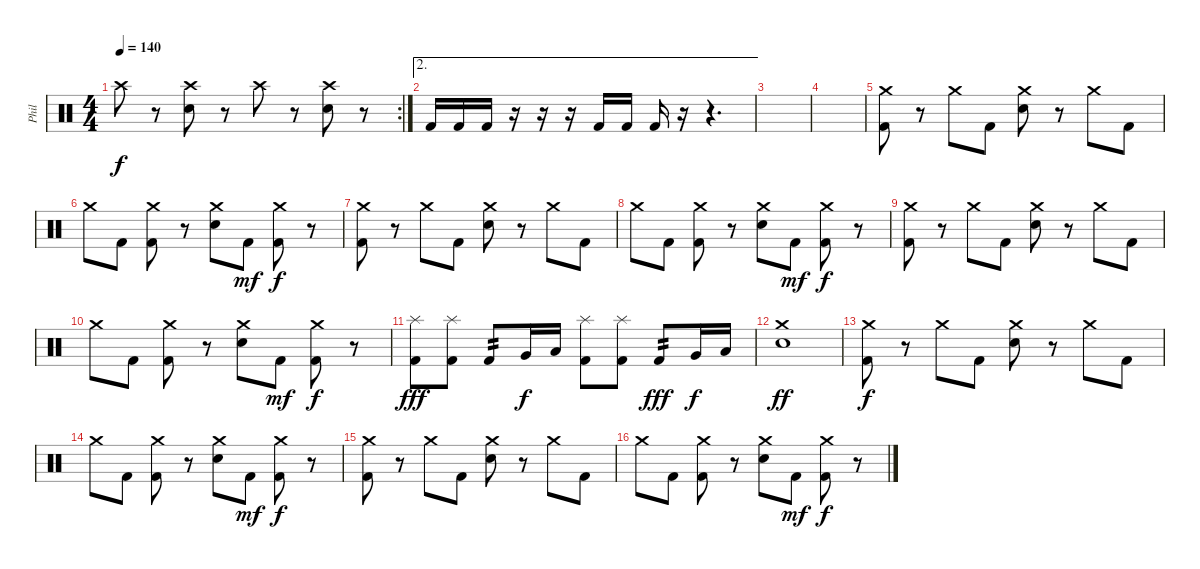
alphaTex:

\track ("Phil" "Phil") {instrument percussion}
\staff {score}
\articulation defaults
\rc 2
\ts (4 4)
\tempo 140
\clef neutral
\ks c "Crash high (hit)".8{dy f}
r.8 ("Crash high (hit)" "Electric Snare (hit)").8 r.8 "Crash high (hit)".8 r.8 ("Crash high (hit)" "Electric Snare (hit)").8 r.8 |
\ae 2 "Kick (hit) 2".16 "Kick (hit) 2".16 "Kick (hit) 2".16
r.16 r.16 r.16 "Kick (hit) 2".16 "Kick (hit) 2".16 "Kick (hit) 2".16 r.16 r.4{d} |
|
|
("Crash medium (hit)" "Kick (hit) 2").8 r.8 "Crash medium (hit)".8 "Kick (hit) 2".8 ("Crash medium (hit)" "Snare (hit) 2").8 r.8 "Crash medium (hit)".8 "Kick (hit) 2".8 |
"Crash medium (hit)".8 "Kick (hit) 2".8 ("Crash medium (hit)" "Kick (hit) 2").8 r.8 ("Crash medium (hit)" "Snare (hit) 2").8 "Kick (hit) 2".8{dy mf} ("Crash medium (hit)" "Kick (hit) 2").8{dy f} r.8 |
("Crash medium (hit)" "Kick (hit) 2").8 r.8 "Crash medium (hit)".8 "Kick (hit) 2".8 ("Crash medium (hit)" "Snare (hit) 2").8 r.8 "Crash medium (hit)".8 "Kick (hit) 2".8 |
"Crash medium (hit)".8 "Kick (hit) 2".8 ("Crash medium (hit)" "Kick (hit) 2").8 r.8 ("Crash medium (hit)" "Snare (hit) 2").8 "Kick (hit) 2".8{dy mf} ("Crash medium (hit)" "Kick (hit) 2").8{dy f} r.8 |
("Crash medium (hit)" "Kick (hit) 2").8 r.8 "Crash medium (hit)".8 "Kick (hit) 2".8 ("Crash medium (hit)" "Snare (hit) 2").8 r.8 "Crash medium (hit)".8 "Kick (hit) 2".8 |
"Crash medium (hit)".8 "Kick (hit) 2".8 ("Crash medium (hit)" "Kick (hit) 2").8 r.8 ("Crash medium (hit)" "Snare (hit) 2").8 "Kick (hit) 2".8{dy mf} ("Crash medium (hit)" "Kick (hit) 2").8{dy f} r.8 |
("Splash (hit)" "Kick (hit) 2").8{dy fff} ("Splash (hit)" "Kick (hit) 2").8 "Kick (hit) 2".8{tp 2} "Very Low Tom (hit)".16{dy f} "Low Floor Tom (hit)".16 ("Splash (hit)" "Kick (hit) 2").8 ("Splash (hit)" "Kick (hit) 2").8 "Kick (hit) 2".8{tp 2 dy fff} "Very Low Tom (hit)".16{dy f} "Low Floor Tom (hit)".16 |
("Crash medium (hit)" "Snare (hit) 2").1{dy ff} |
("Crash medium (hit)" "Kick (hit) 2").8{dy f} r.8 "Crash medium (hit)".8 "Kick (hit) 2".8 ("Crash medium (hit)" "Snare (hit) 2").8 r.8 "Crash medium (hit)".8 "Kick (hit) 2".8 |
"Crash medium (hit)".8 "Kick (hit) 2".8 ("Crash medium (hit)" "Kick (hit) 2").8 r.8 ("Crash medium (hit)" "Snare (hit) 2").8 "Kick (hit) 2".8{dy mf} ("Crash medium (hit)" "Kick (hit) 2").8{dy f} r.8 |
("Crash medium (hit)" "Kick (hit) 2").8 r.8 "Crash medium (hit)".8 "Kick (hit) 2".8 ("Crash medium (hit)" "Snare (hit) 2").8 r.8 "Crash medium (hit)".8 "Kick (hit) 2".8 |
"Crash medium (hit)".8 "Kick (hit) 2".8 ("Crash medium (hit)" "Kick (hit) 2").8 r.8 ("Crash medium (hit)" "Snare (hit) 2").8 "Kick (hit) 2".8{dy mf} ("Crash medium (hit)" "Kick (hit) 2").8{dy f} r.8
